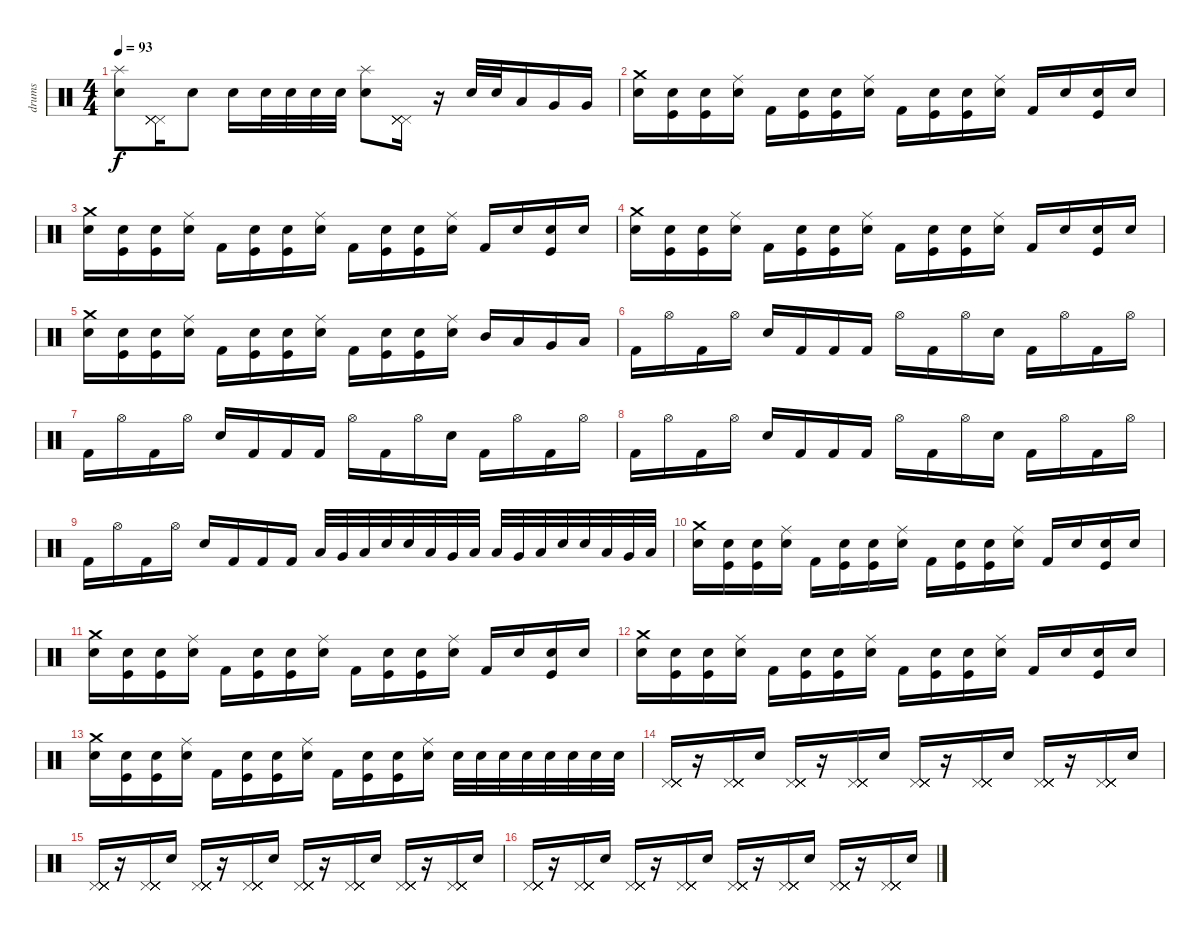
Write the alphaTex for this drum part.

\track ("drums" "drums") {instrument percussion}
\staff {score}
\articulation defaults
\ts (4 4)
\tempo 93
\clef neutral
\ks c
("Electric Snare (hit)" "Splash (hit)").8{dy f} ("Pedal Hi-Hat (hit)" "Pedal Hi-Hat (hit)" "Pedal Hi-Hat (hit)" "Pedal Hi-Hat (hit)").16 "Electric Snare (hit)".8 "Electric Snare (hit)".16 "Electric Snare (hit)".32 "Electric Snare (hit)".32 "Electric Snare (hit)".32 "Electric Snare (hit)".32 ("Electric Snare (hit)" "Splash (hit)").8 ("Pedal Hi-Hat (hit)" "Pedal Hi-Hat (hit)" "Pedal Hi-Hat (hit)" "Pedal Hi-Hat (hit)").16 r.16 "Electric Snare (hit)".32 "Electric Snare (hit)".32 "Low Tom (hit)".16 "Very Low Tom (hit)".16 "Very Low Tom (hit)".16 |
("Crash medium (hit)" "Electric Snare (hit)").16 ("Kick (hit)" "Snare (hit) 2").16 ("Kick (hit)" "Snare (hit) 2").16 ("Ride (middle)" "Electric Snare (hit)").16 "Kick (hit) 2".16 ("Kick (hit)" "Snare (hit) 2").16 ("Kick (hit)" "Snare (hit) 2").16 ("Ride (middle)" "Electric Snare (hit)").16 "Kick (hit) 2".16 ("Kick (hit)" "Snare (hit) 2").16 ("Kick (hit)" "Snare (hit) 2").16 ("Ride (middle)" "Electric Snare (hit)").16 "Kick (hit) 2".16 "Electric Snare (hit)".16 ("Snare (hit) 2" "Kick (hit)").16 "Electric Snare (hit)".16 |
("Crash medium (hit)" "Electric Snare (hit)").16 ("Kick (hit)" "Snare (hit) 2").16 ("Kick (hit)" "Snare (hit) 2").16 ("Ride (middle)" "Electric Snare (hit)").16 "Kick (hit) 2".16 ("Kick (hit)" "Snare (hit) 2").16 ("Kick (hit)" "Snare (hit) 2").16 ("Ride (middle)" "Electric Snare (hit)").16 "Kick (hit) 2".16 ("Kick (hit)" "Snare (hit) 2").16 ("Kick (hit)" "Snare (hit) 2").16 ("Ride (middle)" "Electric Snare (hit)").16 "Kick (hit) 2".16 "Electric Snare (hit)".16 ("Snare (hit) 2" "Kick (hit)").16 "Electric Snare (hit)".16 |
("Crash medium (hit)" "Electric Snare (hit)").16 ("Kick (hit)" "Snare (hit) 2").16 ("Kick (hit)" "Snare (hit) 2").16 ("Ride (middle)" "Electric Snare (hit)").16 "Kick (hit) 2".16 ("Kick (hit)" "Snare (hit) 2").16 ("Kick (hit)" "Snare (hit) 2").16 ("Ride (middle)" "Electric Snare (hit)").16 "Kick (hit) 2".16 ("Kick (hit)" "Snare (hit) 2").16 ("Kick (hit)" "Snare (hit) 2").16 ("Ride (middle)" "Electric Snare (hit)").16 "Kick (hit) 2".16 "Electric Snare (hit)".16 ("Snare (hit) 2" "Kick (hit)").16 "Electric Snare (hit)".16 |
("Crash medium (hit)" "Electric Snare (hit)").16 ("Kick (hit)" "Snare (hit) 2").16 ("Kick (hit)" "Snare (hit) 2").16 ("Ride (middle)" "Electric Snare (hit)").16 "Kick (hit) 2".16 ("Kick (hit)" "Snare (hit) 2").16 ("Kick (hit)" "Snare (hit) 2").16 ("Ride (middle)" "Electric Snare (hit)").16 "Kick (hit) 2".16 ("Kick (hit)" "Snare (hit) 2").16 ("Kick (hit)" "Snare (hit) 2").16 ("Ride (middle)" "Electric Snare (hit)").16 "Mid Tom (hit)".16 "Low Tom (hit)".16 "Very Low Tom (hit)".16 "Low Floor Tom (hit)".16 |
"Kick (hit) 2".16 "Hi-Hat (open)".16 "Kick (hit) 2".16 "Hi-Hat (open)".16 "Electric Snare (hit)".16 "Kick (hit) 2".16 "Kick (hit) 2".16 "Kick (hit) 2".16 "Hi-Hat (open)".16 "Kick (hit) 2".16 "Hi-Hat (open)".16 "Electric Snare (hit)".16 "Kick (hit) 2".16 "Hi-Hat (open)".16 "Kick (hit) 2".16 "Hi-Hat (open)".16 |
"Kick (hit) 2".16 "Hi-Hat (open)".16 "Kick (hit) 2".16 "Hi-Hat (open)".16 "Electric Snare (hit)".16 "Kick (hit) 2".16 "Kick (hit) 2".16 "Kick (hit) 2".16 "Hi-Hat (open)".16 "Kick (hit) 2".16 "Hi-Hat (open)".16 "Electric Snare (hit)".16 "Kick (hit) 2".16 "Hi-Hat (open)".16 "Kick (hit) 2".16 "Hi-Hat (open)".16 |
"Kick (hit) 2".16 "Hi-Hat (open)".16 "Kick (hit) 2".16 "Hi-Hat (open)".16 "Electric Snare (hit)".16 "Kick (hit) 2".16 "Kick (hit) 2".16 "Kick (hit) 2".16 "Hi-Hat (open)".16 "Kick (hit) 2".16 "Hi-Hat (open)".16 "Electric Snare (hit)".16 "Kick (hit) 2".16 "Hi-Hat (open)".16 "Kick (hit) 2".16 "Hi-Hat (open)".16 |
"Kick (hit) 2".16 "Hi-Hat (open)".16 "Kick (hit) 2".16 "Hi-Hat (open)".16 "Electric Snare (hit)".16 "Kick (hit) 2".16 "Kick (hit) 2".16 "Kick (hit) 2".16 "Low Floor Tom (hit)".32 "Very Low Tom (hit)".32 "Low Tom (hit)".32 "Electric Snare (hit)".32 "Snare (hit) 2".32 "Low Tom (hit)".32 "Very Low Tom (hit)".32 "Low Floor Tom (hit)".32 "Low Floor Tom (hit)".32 "Very Low Tom (hit)".32 "Low Tom (hit)".32 "Electric Snare (hit)".32 "Snare (hit) 2".32 "Low Tom (hit)".32 "Very Low Tom (hit)".32 "Low Floor Tom (hit)".32 |
("Crash medium (hit)" "Electric Snare (hit)").16 ("Kick (hit)" "Snare (hit) 2").16 ("Kick (hit)" "Snare (hit) 2").16 ("Ride (middle)" "Electric Snare (hit)").16 "Kick (hit) 2".16 ("Kick (hit)" "Snare (hit) 2").16 ("Kick (hit)" "Snare (hit) 2").16 ("Ride (middle)" "Electric Snare (hit)").16 "Kick (hit) 2".16 ("Kick (hit)" "Snare (hit) 2").16 ("Kick (hit)" "Snare (hit) 2").16 ("Ride (middle)" "Electric Snare (hit)").16 "Kick (hit) 2".16 "Electric Snare (hit)".16 ("Snare (hit) 2" "Kick (hit)").16 "Electric Snare (hit)".16 |
("Crash medium (hit)" "Electric Snare (hit)").16 ("Kick (hit)" "Snare (hit) 2").16 ("Kick (hit)" "Snare (hit) 2").16 ("Ride (middle)" "Electric Snare (hit)").16 "Kick (hit) 2".16 ("Kick (hit)" "Snare (hit) 2").16 ("Kick (hit)" "Snare (hit) 2").16 ("Ride (middle)" "Electric Snare (hit)").16 "Kick (hit) 2".16 ("Kick (hit)" "Snare (hit) 2").16 ("Kick (hit)" "Snare (hit) 2").16 ("Ride (middle)" "Electric Snare (hit)").16 "Kick (hit) 2".16 "Electric Snare (hit)".16 ("Snare (hit) 2" "Kick (hit)").16 "Electric Snare (hit)".16 |
("Crash medium (hit)" "Electric Snare (hit)").16 ("Kick (hit)" "Snare (hit) 2").16 ("Kick (hit)" "Snare (hit) 2").16 ("Ride (middle)" "Electric Snare (hit)").16 "Kick (hit) 2".16 ("Kick (hit)" "Snare (hit) 2").16 ("Kick (hit)" "Snare (hit) 2").16 ("Ride (middle)" "Electric Snare (hit)").16 "Kick (hit) 2".16 ("Kick (hit)" "Snare (hit) 2").16 ("Kick (hit)" "Snare (hit) 2").16 ("Ride (middle)" "Electric Snare (hit)").16 "Kick (hit) 2".16 "Electric Snare (hit)".16 ("Snare (hit) 2" "Kick (hit)").16 "Electric Snare (hit)".16 |
("Crash medium (hit)" "Electric Snare (hit)").16 ("Kick (hit)" "Snare (hit) 2").16 ("Kick (hit)" "Snare (hit) 2").16 ("Ride (middle)" "Electric Snare (hit)").16 "Kick (hit) 2".16 ("Kick (hit)" "Snare (hit) 2").16 ("Kick (hit)" "Snare (hit) 2").16 ("Ride (middle)" "Electric Snare (hit)").16 "Kick (hit) 2".16 ("Kick (hit)" "Snare (hit) 2").16 ("Kick (hit)" "Snare (hit) 2").16 ("Ride (middle)" "Electric Snare (hit)").16 "Electric Snare (hit)".32 "Electric Snare (hit)".32 "Electric Snare (hit)".32 "Electric Snare (hit)".32 "Electric Snare (hit)".32 "Electric Snare (hit)".32 "Electric Snare (hit)".32 "Electric Snare (hit)".32 |
("Pedal Hi-Hat (hit)" "Pedal Hi-Hat (hit)" "Pedal Hi-Hat (hit)" "Pedal Hi-Hat (hit)" "Pedal Hi-Hat (hit)" "Pedal Hi-Hat (hit)").16 r.16 ("Pedal Hi-Hat (hit)" "Pedal Hi-Hat (hit)" "Pedal Hi-Hat (hit)" "Pedal Hi-Hat (hit)" "Pedal Hi-Hat (hit)" "Pedal Hi-Hat (hit)").16 "Electric Snare (hit)".16 ("Pedal Hi-Hat (hit)" "Pedal Hi-Hat (hit)" "Pedal Hi-Hat (hit)" "Pedal Hi-Hat (hit)" "Pedal Hi-Hat (hit)" "Pedal Hi-Hat (hit)").16 r.16 ("Pedal Hi-Hat (hit)" "Pedal Hi-Hat (hit)" "Pedal Hi-Hat (hit)" "Pedal Hi-Hat (hit)" "Pedal Hi-Hat (hit)" "Pedal Hi-Hat (hit)").16 "Electric Snare (hit)".16 ("Pedal Hi-Hat (hit)" "Pedal Hi-Hat (hit)" "Pedal Hi-Hat (hit)" "Pedal Hi-Hat (hit)" "Pedal Hi-Hat (hit)" "Pedal Hi-Hat (hit)").16 r.16 ("Pedal Hi-Hat (hit)" "Pedal Hi-Hat (hit)" "Pedal Hi-Hat (hit)" "Pedal Hi-Hat (hit)" "Pedal Hi-Hat (hit)" "Pedal Hi-Hat (hit)").16 "Electric Snare (hit)".16 ("Pedal Hi-Hat (hit)" "Pedal Hi-Hat (hit)" "Pedal Hi-Hat (hit)" "Pedal Hi-Hat (hit)" "Pedal Hi-Hat (hit)" "Pedal Hi-Hat (hit)").16 r.16 ("Pedal Hi-Hat (hit)" "Pedal Hi-Hat (hit)" "Pedal Hi-Hat (hit)" "Pedal Hi-Hat (hit)" "Pedal Hi-Hat (hit)" "Pedal Hi-Hat (hit)").16 "Electric Snare (hit)".16 |
("Pedal Hi-Hat (hit)" "Pedal Hi-Hat (hit)" "Pedal Hi-Hat (hit)" "Pedal Hi-Hat (hit)" "Pedal Hi-Hat (hit)" "Pedal Hi-Hat (hit)").16 r.16 ("Pedal Hi-Hat (hit)" "Pedal Hi-Hat (hit)" "Pedal Hi-Hat (hit)" "Pedal Hi-Hat (hit)" "Pedal Hi-Hat (hit)" "Pedal Hi-Hat (hit)").16 "Electric Snare (hit)".16 ("Pedal Hi-Hat (hit)" "Pedal Hi-Hat (hit)" "Pedal Hi-Hat (hit)" "Pedal Hi-Hat (hit)" "Pedal Hi-Hat (hit)" "Pedal Hi-Hat (hit)").16 r.16 ("Pedal Hi-Hat (hit)" "Pedal Hi-Hat (hit)" "Pedal Hi-Hat (hit)" "Pedal Hi-Hat (hit)" "Pedal Hi-Hat (hit)" "Pedal Hi-Hat (hit)").16 "Electric Snare (hit)".16 ("Pedal Hi-Hat (hit)" "Pedal Hi-Hat (hit)" "Pedal Hi-Hat (hit)" "Pedal Hi-Hat (hit)" "Pedal Hi-Hat (hit)" "Pedal Hi-Hat (hit)").16 r.16 ("Pedal Hi-Hat (hit)" "Pedal Hi-Hat (hit)" "Pedal Hi-Hat (hit)" "Pedal Hi-Hat (hit)" "Pedal Hi-Hat (hit)" "Pedal Hi-Hat (hit)").16 "Electric Snare (hit)".16 ("Pedal Hi-Hat (hit)" "Pedal Hi-Hat (hit)" "Pedal Hi-Hat (hit)" "Pedal Hi-Hat (hit)" "Pedal Hi-Hat (hit)" "Pedal Hi-Hat (hit)").16 r.16 ("Pedal Hi-Hat (hit)" "Pedal Hi-Hat (hit)" "Pedal Hi-Hat (hit)" "Pedal Hi-Hat (hit)" "Pedal Hi-Hat (hit)" "Pedal Hi-Hat (hit)").16 "Electric Snare (hit)".16 |
("Pedal Hi-Hat (hit)" "Pedal Hi-Hat (hit)" "Pedal Hi-Hat (hit)" "Pedal Hi-Hat (hit)" "Pedal Hi-Hat (hit)" "Pedal Hi-Hat (hit)").16 r.16 ("Pedal Hi-Hat (hit)" "Pedal Hi-Hat (hit)" "Pedal Hi-Hat (hit)" "Pedal Hi-Hat (hit)" "Pedal Hi-Hat (hit)" "Pedal Hi-Hat (hit)").16 "Electric Snare (hit)".16 ("Pedal Hi-Hat (hit)" "Pedal Hi-Hat (hit)" "Pedal Hi-Hat (hit)" "Pedal Hi-Hat (hit)" "Pedal Hi-Hat (hit)" "Pedal Hi-Hat (hit)").16 r.16 ("Pedal Hi-Hat (hit)" "Pedal Hi-Hat (hit)" "Pedal Hi-Hat (hit)" "Pedal Hi-Hat (hit)" "Pedal Hi-Hat (hit)" "Pedal Hi-Hat (hit)").16 "Electric Snare (hit)".16 ("Pedal Hi-Hat (hit)" "Pedal Hi-Hat (hit)" "Pedal Hi-Hat (hit)" "Pedal Hi-Hat (hit)" "Pedal Hi-Hat (hit)" "Pedal Hi-Hat (hit)").16 r.16 ("Pedal Hi-Hat (hit)" "Pedal Hi-Hat (hit)" "Pedal Hi-Hat (hit)" "Pedal Hi-Hat (hit)" "Pedal Hi-Hat (hit)" "Pedal Hi-Hat (hit)").16 "Electric Snare (hit)".16 ("Pedal Hi-Hat (hit)" "Pedal Hi-Hat (hit)" "Pedal Hi-Hat (hit)" "Pedal Hi-Hat (hit)" "Pedal Hi-Hat (hit)" "Pedal Hi-Hat (hit)").16 r.16 ("Pedal Hi-Hat (hit)" "Pedal Hi-Hat (hit)" "Pedal Hi-Hat (hit)" "Pedal Hi-Hat (hit)" "Pedal Hi-Hat (hit)" "Pedal Hi-Hat (hit)").16 "Electric Snare (hit)".16
